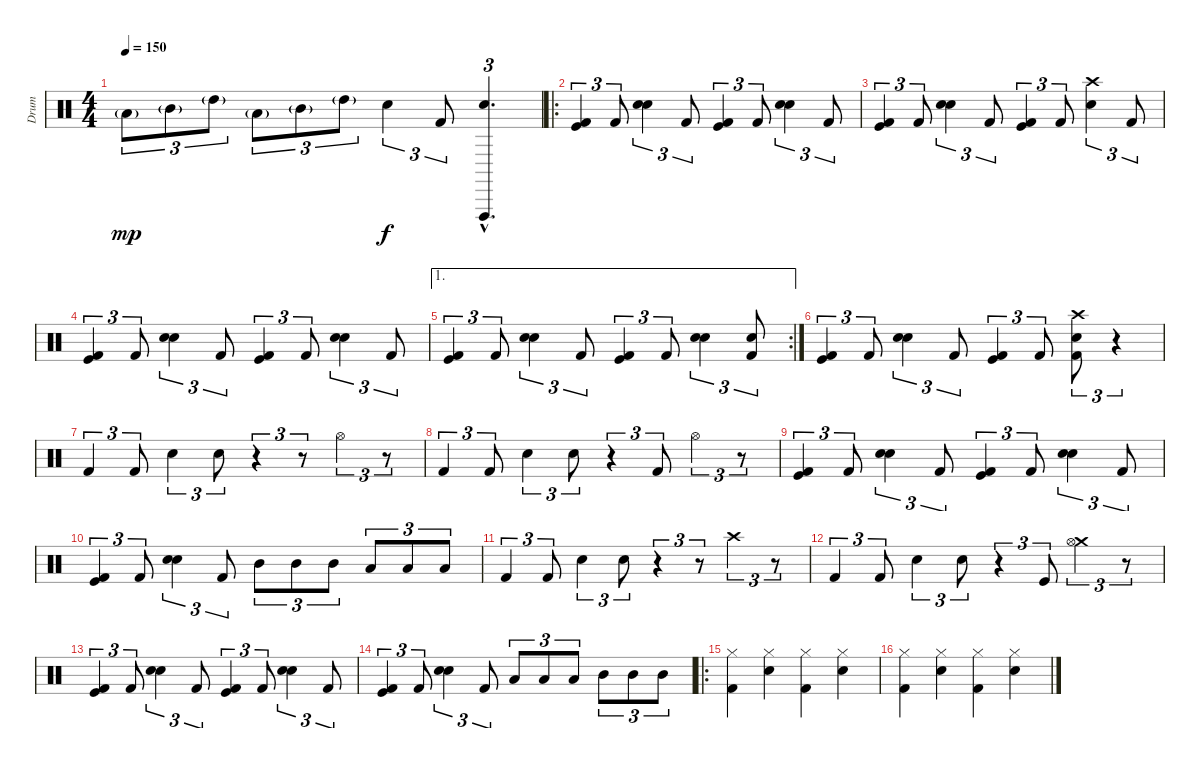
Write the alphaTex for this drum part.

\track ("Drum" "Drum") {instrument percussion}
\staff {score}
\articulation defaults
\ts (4 4)
\tempo 150
\clef neutral
\ks c "Low Tom (hit)"{g}.8{tu (3 2) dy mp} "Mid Tom (hit)"{g}.8{tu (3 2)} "High Tom (hit)"{g}.8{tu (3 2)} "Low Tom (hit)"{g}.8{tu (3 2)} "Mid Tom (hit)"{g}.8{tu (3 2)} "High Tom (hit)"{g}.8{tu (3 2)} "Snare (hit) 2".4{tu (3 2) dy f} "Kick (hit) 2".8{tu (3 2)}
("Vibraslap (hit)"{hac} "Snare (hit) 2"{hac}).4{d tu (3 2)} |
\ro
("Kick (hit) 2" "Kick (hit)").4{tu (3 2)} "Kick (hit) 2".8{tu (3 2)} ("Electric Snare (hit)" "Snare (hit) 2").4{tu (3 2)} "Kick (hit) 2".8{tu (3 2)} ("Kick (hit) 2" "Kick (hit)").4{tu (3 2)} "Kick (hit) 2".8{tu (3 2)} ("Electric Snare (hit)" "Snare (hit) 2").4{tu (3 2)} "Kick (hit) 2".8{tu (3 2)} |
("Kick (hit) 2" "Kick (hit)").4{tu (3 2)} "Kick (hit) 2".8{tu (3 2)} ("Electric Snare (hit)" "Snare (hit) 2").4{tu (3 2)} "Kick (hit) 2".8{tu (3 2)} ("Kick (hit) 2" "Kick (hit)").4{tu (3 2)} "Kick (hit) 2".8{tu (3 2)} ("Electric Snare (hit)" "Crash high (hit)").4{tu (3 2)} "Kick (hit) 2".8{tu (3 2)} |
("Kick (hit) 2" "Kick (hit)").4{tu (3 2)} "Kick (hit) 2".8{tu (3 2)} ("Electric Snare (hit)" "Snare (hit) 2").4{tu (3 2)} "Kick (hit) 2".8{tu (3 2)} ("Kick (hit) 2" "Kick (hit)").4{tu (3 2)} "Kick (hit) 2".8{tu (3 2)} ("Electric Snare (hit)" "Snare (hit) 2").4{tu (3 2)} "Kick (hit) 2".8{tu (3 2)} |
\ae 1
\rc 2
("Kick (hit) 2" "Kick (hit)").4{tu (3 2)} "Kick (hit) 2".8{tu (3 2)} ("Electric Snare (hit)" "Snare (hit) 2").4{tu (3 2)} "Kick (hit) 2".8{tu (3 2)} ("Kick (hit) 2" "Kick (hit)").4{tu (3 2)} "Kick (hit) 2".8{tu (3 2)} ("Electric Snare (hit)" "Snare (hit) 2").4{tu (3 2)} ("Kick (hit) 2" "Electric Snare (hit)").8{tu (3 2)} |
("Kick (hit) 2" "Kick (hit)").4{tu (3 2)} "Kick (hit) 2".8{tu (3 2)} ("Electric Snare (hit)" "Snare (hit) 2").4{tu (3 2)} "Kick (hit) 2".8{tu (3 2)} ("Kick (hit) 2" "Kick (hit)").4{tu (3 2)} "Kick (hit) 2".8{tu (3 2)} ("Electric Snare (hit)" "Kick (hit) 2" "Crash high (hit)").8{tu (3 2)} r.4{tu (3 2)} |
"Kick (hit) 2".4{tu (3 2)} "Kick (hit) 2".8{tu (3 2)} "Electric Snare (hit)".4{tu (3 2)} "Electric Snare (hit)".8{tu (3 2)} r.4{tu (3 2)} r.8{tu (3 2)} "Hi-Hat (open)".4{tu (3 2)} r.8{tu (3 2)} |
"Kick (hit) 2".4{tu (3 2)} "Kick (hit) 2".8{tu (3 2)} "Electric Snare (hit)".4{tu (3 2)} "Electric Snare (hit)".8{tu (3 2)} r.4{tu (3 2)} "Kick (hit) 2".8{tu (3 2)} "Hi-Hat (open)".4{tu (3 2)} r.8{tu (3 2)} |
("Kick (hit) 2" "Kick (hit)").4{tu (3 2)} "Kick (hit) 2".8{tu (3 2)} ("Electric Snare (hit)" "Snare (hit) 2").4{tu (3 2)} "Kick (hit) 2".8{tu (3 2)} ("Kick (hit) 2" "Kick (hit)").4{tu (3 2)} "Kick (hit) 2".8{tu (3 2)} ("Electric Snare (hit)" "Snare (hit) 2").4{tu (3 2)} "Kick (hit) 2".8{tu (3 2)} |
("Kick (hit) 2" "Kick (hit)").4{tu (3 2)} "Kick (hit) 2".8{tu (3 2)} ("Electric Snare (hit)" "Snare (hit) 2").4{tu (3 2)} "Kick (hit) 2".8{tu (3 2)} "Mid Tom (hit)".8{tu (3 2)} "Mid Tom (hit)".8{tu (3 2)} "Mid Tom (hit)".8{tu (3 2)} "Low Tom (hit)".8{tu (3 2)} "Low Tom (hit)".8{tu (3 2)} "Low Tom (hit)".8{tu (3 2)} |
"Kick (hit) 2".4{tu (3 2)} "Kick (hit) 2".8{tu (3 2)} "Electric Snare (hit)".4{tu (3 2)} "Electric Snare (hit)".8{tu (3 2)} r.4{tu (3 2)} r.8{tu (3 2)} "Crash high (hit)".4{tu (3 2)} r.8{tu (3 2)} |
"Kick (hit) 2".4{tu (3 2)} "Kick (hit) 2".8{tu (3 2)} "Electric Snare (hit)".4{tu (3 2)} "Electric Snare (hit)".8{tu (3 2)} r.4{tu (3 2)} "Kick (hit)".8{tu (3 2)} ("Crash medium (hit)" "Hi-Hat (open)").4{tu (3 2)} r.8{tu (3 2)} |
("Kick (hit) 2" "Kick (hit)").4{tu (3 2)} "Kick (hit) 2".8{tu (3 2)} ("Electric Snare (hit)" "Snare (hit) 2").4{tu (3 2)} "Kick (hit) 2".8{tu (3 2)} ("Kick (hit) 2" "Kick (hit)").4{tu (3 2)} "Kick (hit) 2".8{tu (3 2)} ("Electric Snare (hit)" "Snare (hit) 2").4{tu (3 2)} "Kick (hit) 2".8{tu (3 2)} |
("Kick (hit) 2" "Kick (hit)").4{tu (3 2)} "Kick (hit) 2".8{tu (3 2)} ("Electric Snare (hit)" "Snare (hit) 2").4{tu (3 2)} "Kick (hit) 2".8{tu (3 2)} "Low Tom (hit)".8{tu (3 2)} "Low Tom (hit)".8{tu (3 2)} "Low Tom (hit)".8{tu (3 2)} "Mid Tom (hit)".8{tu (3 2)} "Mid Tom (hit)".8{tu (3 2)} "Mid Tom (hit)".8{tu (3 2)} |
\ro
("Kick (hit) 2" "Hi-Hat (closed)").4 ("Snare (hit) 2" "Hi-Hat (closed)").4 ("Kick (hit) 2" "Hi-Hat (closed)").4 ("Snare (hit) 2" "Hi-Hat (closed)").4 |
("Kick (hit) 2" "Hi-Hat (closed)").4 ("Snare (hit) 2" "Hi-Hat (closed)").4 ("Kick (hit) 2" "Hi-Hat (closed)").4 ("Snare (hit) 2" "Hi-Hat (closed)").4
